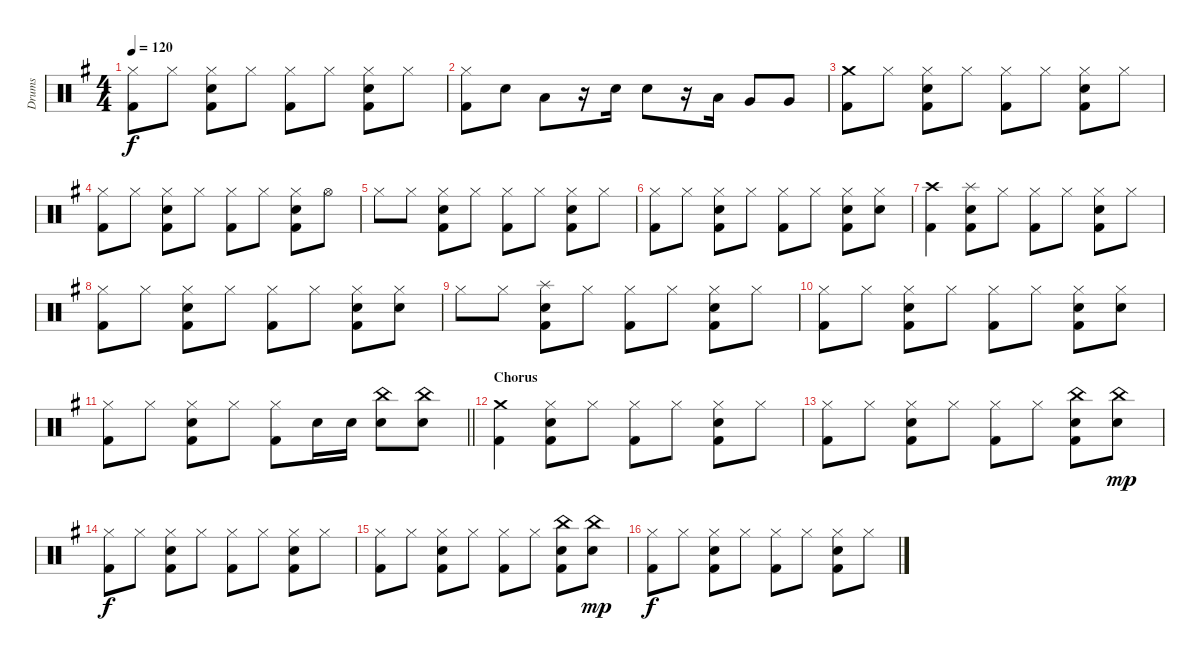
\track ("Drums" "Drums") {instrument percussion}
\staff {score}
\articulation defaults
\ts (4 4)
\tempo 120
\clef neutral
\ks g
("Hi-Hat (closed)" "Kick (hit) 2").8{dy f} "Hi-Hat (closed)".8 ("Hi-Hat (closed)" "Electric Snare (hit)" "Kick (hit) 2").8 "Hi-Hat (closed)".8 ("Hi-Hat (closed)" "Kick (hit) 2").8 "Hi-Hat (closed)".8 ("Hi-Hat (closed)" "Electric Snare (hit)" "Kick (hit) 2").8 "Hi-Hat (closed)".8 |
("Hi-Hat (closed)" "Kick (hit) 2").8 "Electric Snare (hit)".8 "Low Tom (hit)".8 r.16 "Electric Snare (hit)".16 "Electric Snare (hit)".8 r.16 "Low Tom (hit)".16 "Very Low Tom (hit)".8 "Very Low Tom (hit)".8 |
("Crash medium (hit)" "Kick (hit) 2").8 "Hi-Hat (closed)".8 ("Hi-Hat (closed)" "Electric Snare (hit)" "Kick (hit) 2").8 "Hi-Hat (closed)".8 ("Hi-Hat (closed)" "Kick (hit) 2").8 "Hi-Hat (closed)".8 ("Hi-Hat (closed)" "Electric Snare (hit)" "Kick (hit) 2").8 "Hi-Hat (closed)".8 |
("Hi-Hat (closed)" "Kick (hit) 2").8 "Hi-Hat (closed)".8 ("Hi-Hat (closed)" "Electric Snare (hit)" "Kick (hit) 2").8 "Hi-Hat (closed)".8 ("Hi-Hat (closed)" "Kick (hit) 2").8 "Hi-Hat (closed)".8 ("Hi-Hat (closed)" "Electric Snare (hit)" "Kick (hit) 2").8 "Hi-Hat (open)".8 |
"Hi-Hat (closed)".8 "Hi-Hat (closed)".8 ("Hi-Hat (closed)" "Electric Snare (hit)" "Kick (hit) 2").8 "Hi-Hat (closed)".8 ("Hi-Hat (closed)" "Kick (hit) 2").8 "Hi-Hat (closed)".8 ("Hi-Hat (closed)" "Electric Snare (hit)" "Kick (hit) 2").8 "Hi-Hat (closed)".8 |
("Hi-Hat (closed)" "Kick (hit) 2").8 "Hi-Hat (closed)".8 ("Hi-Hat (closed)" "Electric Snare (hit)" "Kick (hit) 2").8 "Hi-Hat (closed)".8 ("Hi-Hat (closed)" "Kick (hit) 2").8 "Hi-Hat (closed)".8 ("Hi-Hat (closed)" "Electric Snare (hit)" "Kick (hit) 2").8 ("Hi-Hat (closed)" "Electric Snare (hit)").8 |
("Crash high (hit)" "Kick (hit) 2").4 ("Splash (hit)" "Electric Snare (hit)" "Kick (hit) 2").8 "Hi-Hat (closed)".8 ("Hi-Hat (closed)" "Kick (hit) 2").8 "Hi-Hat (closed)".8 ("Hi-Hat (closed)" "Electric Snare (hit)" "Kick (hit) 2").8 "Hi-Hat (closed)".8 |
("Hi-Hat (closed)" "Kick (hit) 2").8 "Hi-Hat (closed)".8 ("Hi-Hat (closed)" "Electric Snare (hit)" "Kick (hit) 2").8 "Hi-Hat (closed)".8 ("Hi-Hat (closed)" "Kick (hit) 2").8 "Hi-Hat (closed)".8 ("Hi-Hat (closed)" "Electric Snare (hit)" "Kick (hit) 2").8 ("Hi-Hat (closed)" "Electric Snare (hit)").8 |
"Hi-Hat (closed)".8 "Hi-Hat (closed)".8 ("Splash (hit)" "Electric Snare (hit)" "Kick (hit) 2").8 "Hi-Hat (closed)".8 ("Hi-Hat (closed)" "Kick (hit) 2").8 "Hi-Hat (closed)".8 ("Hi-Hat (closed)" "Electric Snare (hit)" "Kick (hit) 2").8 "Hi-Hat (closed)".8 |
("Hi-Hat (closed)" "Kick (hit) 2").8 "Hi-Hat (closed)".8 ("Hi-Hat (closed)" "Electric Snare (hit)" "Kick (hit) 2").8 "Hi-Hat (closed)".8 ("Hi-Hat (closed)" "Kick (hit) 2").8 "Hi-Hat (closed)".8 ("Hi-Hat (closed)" "Electric Snare (hit)" "Kick (hit) 2").8 ("Hi-Hat (closed)" "Electric Snare (hit)").8 |
\barLineRight lightlight
("Hi-Hat (closed)" "Kick (hit) 2").8 "Hi-Hat (closed)".8 ("Hi-Hat (closed)" "Electric Snare (hit)" "Kick (hit) 2").8 "Hi-Hat (closed)".8 ("Hi-Hat (closed)" "Kick (hit) 2").8 "Electric Snare (hit)".16 "Electric Snare (hit)".16 ("China (hit)" "Electric Snare (hit)").8 ("China (hit)" "Electric Snare (hit)").8 |
\section ("" "Chorus")
("Crash medium (hit)" "Kick (hit) 2").4 ("Hi-Hat (closed)" "Electric Snare (hit)" "Kick (hit) 2").8 "Hi-Hat (closed)".8 ("Hi-Hat (closed)" "Kick (hit) 2").8 "Hi-Hat (closed)".8 ("Hi-Hat (closed)" "Electric Snare (hit)" "Kick (hit) 2").8 "Hi-Hat (closed)".8 |
("Hi-Hat (closed)" "Kick (hit) 2").8 "Hi-Hat (closed)".8 ("Hi-Hat (closed)" "Electric Snare (hit)" "Kick (hit) 2").8 "Hi-Hat (closed)".8 ("Hi-Hat (closed)" "Kick (hit) 2").8 "Hi-Hat (closed)".8 ("China (hit)" "Electric Snare (hit)" "Kick (hit) 2").8 ("China (hit)" "Electric Snare (hit)").8{dy mp} |
("Hi-Hat (closed)" "Kick (hit) 2").8{dy f} "Hi-Hat (closed)".8 ("Hi-Hat (closed)" "Electric Snare (hit)" "Kick (hit) 2").8 "Hi-Hat (closed)".8 ("Hi-Hat (closed)" "Kick (hit) 2").8 "Hi-Hat (closed)".8 ("Hi-Hat (closed)" "Electric Snare (hit)" "Kick (hit) 2").8 "Hi-Hat (closed)".8 |
("Hi-Hat (closed)" "Kick (hit) 2").8 "Hi-Hat (closed)".8 ("Hi-Hat (closed)" "Electric Snare (hit)" "Kick (hit) 2").8 "Hi-Hat (closed)".8 ("Hi-Hat (closed)" "Kick (hit) 2").8 "Hi-Hat (closed)".8 ("China (hit)" "Electric Snare (hit)" "Kick (hit) 2").8 ("China (hit)" "Electric Snare (hit)").8{dy mp} |
("Hi-Hat (closed)" "Kick (hit) 2").8{dy f} "Hi-Hat (closed)".8 ("Hi-Hat (closed)" "Electric Snare (hit)" "Kick (hit) 2").8 "Hi-Hat (closed)".8 ("Hi-Hat (closed)" "Kick (hit) 2").8 "Hi-Hat (closed)".8 ("Hi-Hat (closed)" "Electric Snare (hit)" "Kick (hit) 2").8 "Hi-Hat (closed)".8
